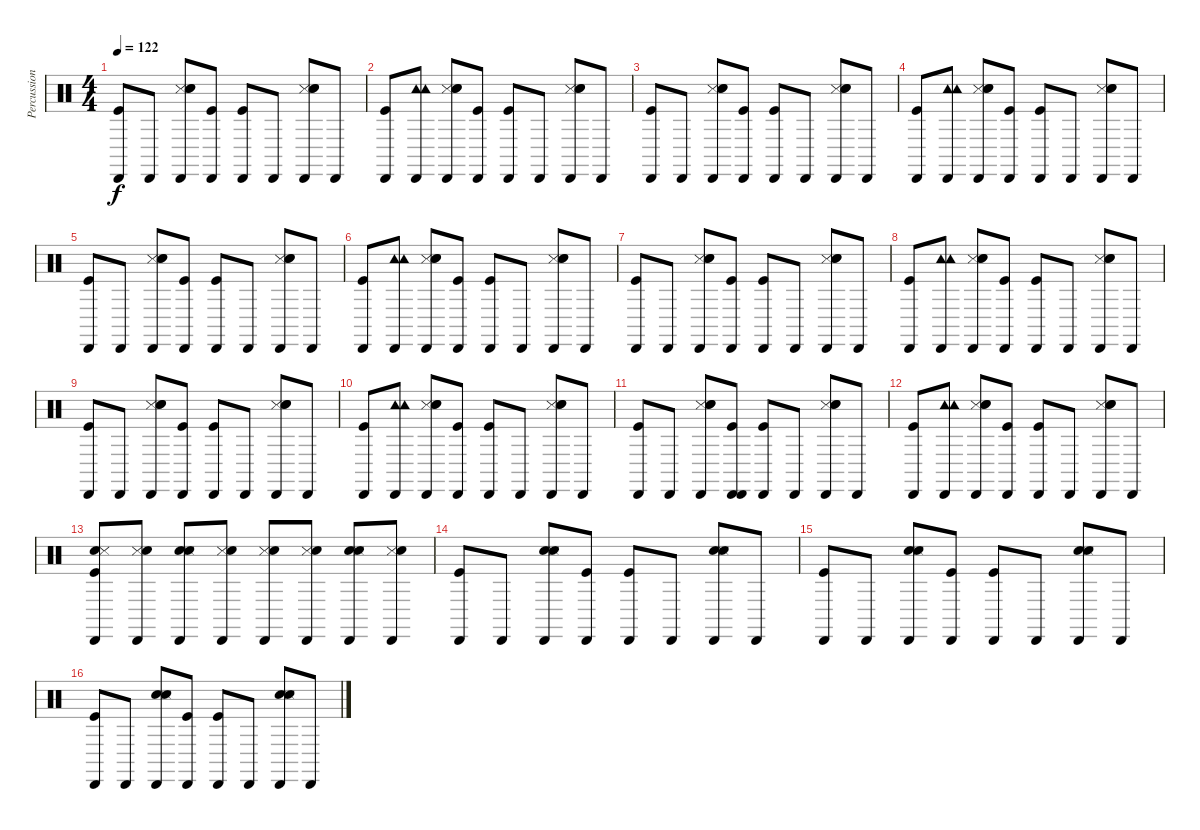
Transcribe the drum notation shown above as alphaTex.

\track ("Percussion" "Percussion") {instrument percussion}
\staff {score}
\articulation defaults
\ts (4 4)
\tempo 122
\clef neutral
\ks c
("Kick (hit)" "Cabasa (hit)").8{dy f} "Cabasa (hit)".8 ("Snare (side stick) 3" "Cabasa (hit)" "Hand Clap (hit)" "Snare (hit) 2").8 ("Kick (hit)" "Cabasa (hit)").8 ("Kick (hit)" "Cabasa (hit)").8 "Cabasa (hit)".8 ("Snare (side stick) 3" "Cabasa (hit)" "Hand Clap (hit)" "Snare (hit) 2").8 "Cabasa (hit)".8 |
("Kick (hit)" "Cabasa (hit)").8 ("Tambourine (hit)" "Cabasa (hit)" "Tambourine (hit)").8 ("Snare (side stick) 3" "Cabasa (hit)" "Hand Clap (hit)" "Snare (hit) 2").8 ("Kick (hit)" "Cabasa (hit)").8 ("Kick (hit)" "Cabasa (hit)").8 "Cabasa (hit)".8 ("Snare (side stick) 3" "Cabasa (hit)" "Hand Clap (hit)" "Snare (hit) 2").8 "Cabasa (hit)".8 |
("Kick (hit)" "Cabasa (hit)").8 "Cabasa (hit)".8 ("Snare (side stick) 3" "Cabasa (hit)" "Hand Clap (hit)" "Snare (hit) 2").8 ("Kick (hit)" "Cabasa (hit)").8 ("Kick (hit)" "Cabasa (hit)").8 "Cabasa (hit)".8 ("Snare (side stick) 3" "Cabasa (hit)" "Hand Clap (hit)" "Snare (hit) 2").8 "Cabasa (hit)".8 |
("Kick (hit)" "Cabasa (hit)").8 ("Tambourine (hit)" "Cabasa (hit)" "Tambourine (hit)").8 ("Snare (side stick) 3" "Cabasa (hit)" "Hand Clap (hit)" "Snare (hit) 2").8 ("Kick (hit)" "Cabasa (hit)").8 ("Kick (hit)" "Cabasa (hit)").8 "Cabasa (hit)".8 ("Snare (side stick) 3" "Cabasa (hit)" "Hand Clap (hit)" "Snare (hit) 2").8 "Cabasa (hit)".8 |
("Kick (hit)" "Cabasa (hit)").8 "Cabasa (hit)".8 ("Snare (side stick) 3" "Cabasa (hit)" "Hand Clap (hit)" "Snare (hit) 2").8 ("Kick (hit)" "Cabasa (hit)").8 ("Kick (hit)" "Cabasa (hit)").8 "Cabasa (hit)".8 ("Snare (side stick) 3" "Cabasa (hit)" "Hand Clap (hit)" "Snare (hit) 2").8 "Cabasa (hit)".8 |
("Kick (hit)" "Cabasa (hit)").8 ("Tambourine (hit)" "Cabasa (hit)" "Tambourine (hit)").8 ("Snare (side stick) 3" "Cabasa (hit)" "Hand Clap (hit)" "Snare (hit) 2").8 ("Kick (hit)" "Cabasa (hit)").8 ("Kick (hit)" "Cabasa (hit)").8 "Cabasa (hit)".8 ("Snare (side stick) 3" "Cabasa (hit)" "Hand Clap (hit)" "Snare (hit) 2").8 "Cabasa (hit)".8 |
("Kick (hit)" "Cabasa (hit)").8 "Cabasa (hit)".8 ("Snare (side stick) 3" "Cabasa (hit)" "Hand Clap (hit)" "Snare (hit) 2").8 ("Kick (hit)" "Cabasa (hit)").8 ("Kick (hit)" "Cabasa (hit)").8 "Cabasa (hit)".8 ("Snare (side stick) 3" "Cabasa (hit)" "Hand Clap (hit)" "Snare (hit) 2").8 "Cabasa (hit)".8 |
("Kick (hit)" "Cabasa (hit)").8 ("Tambourine (hit)" "Cabasa (hit)" "Tambourine (hit)").8 ("Snare (side stick) 3" "Cabasa (hit)" "Hand Clap (hit)" "Snare (hit) 2").8 ("Kick (hit)" "Cabasa (hit)").8 ("Kick (hit)" "Cabasa (hit)").8 "Cabasa (hit)".8 ("Snare (side stick) 3" "Cabasa (hit)" "Hand Clap (hit)" "Snare (hit) 2").8 "Cabasa (hit)".8 |
("Kick (hit)" "Cabasa (hit)").8 "Cabasa (hit)".8 ("Snare (side stick) 3" "Hand Clap (hit)" "Cabasa (hit)" "Snare (hit) 2").8 ("Kick (hit)" "Cabasa (hit)").8 ("Kick (hit)" "Cabasa (hit)").8 "Cabasa (hit)".8 ("Snare (side stick) 3" "Hand Clap (hit)" "Cabasa (hit)" "Snare (hit) 2").8 "Cabasa (hit)".8 |
("Kick (hit)" "Cabasa (hit)").8 ("Tambourine (hit)" "Cabasa (hit)" "Tambourine (hit)").8 ("Snare (side stick) 3" "Hand Clap (hit)" "Cabasa (hit)" "Snare (hit) 2").8 ("Kick (hit)" "Cabasa (hit)").8 ("Kick (hit)" "Cabasa (hit)").8 "Cabasa (hit)".8 ("Snare (side stick) 3" "Hand Clap (hit)" "Cabasa (hit)" "Snare (hit) 2").8 "Cabasa (hit)".8 |
("Kick (hit)" "Cabasa (hit)").8 "Cabasa (hit)".8 ("Snare (side stick) 3" "Hand Clap (hit)" "Cabasa (hit)" "Snare (hit) 2").8 ("Kick (hit)" "Cabasa (hit)" "Cabasa (hit)").8 ("Kick (hit)" "Cabasa (hit)").8 "Cabasa (hit)".8 ("Snare (side stick) 3" "Hand Clap (hit)" "Cabasa (hit)" "Snare (hit) 2").8 "Cabasa (hit)".8 |
("Kick (hit)" "Cabasa (hit)").8 ("Tambourine (hit)" "Cabasa (hit)" "Tambourine (hit)").8 ("Snare (side stick) 3" "Hand Clap (hit)" "Cabasa (hit)" "Snare (hit) 2").8 ("Kick (hit)" "Cabasa (hit)").8 ("Kick (hit)" "Cabasa (hit)").8 "Cabasa (hit)".8 ("Snare (side stick) 3" "Hand Clap (hit)" "Cabasa (hit)" "Snare (hit) 2").8 "Cabasa (hit)".8 |
("Snare (hit) 2" "Snare (side stick) 3" "Kick (hit)" "Cabasa (hit)").8{volume 13} ("Snare (side stick) 3" "Snare (hit) 2" "Cabasa (hit)").8{volume 13} ("Hand Clap (hit)" "Snare (side stick) 3" "Cabasa (hit)" "Snare (hit) 2").8{volume 13} ("Snare (side stick) 3" "Snare (hit) 2" "Cabasa (hit)").8{volume 14} ("Snare (side stick) 3" "Snare (hit) 2" "Cabasa (hit)").8{volume 14} ("Snare (side stick) 3" "Cabasa (hit)" "Snare (hit) 2").8{volume 14} ("Hand Clap (hit)" "Snare (side stick) 3" "Cabasa (hit)" "Snare (hit) 2").8{volume 14} ("Snare (side stick) 3" "Cabasa (hit)" "Snare (hit) 2").8{volume 15} |
("Cabasa (hit)" "Kick (hit)").8{volume 15} "Cabasa (hit)".8 ("Cabasa (hit)" "Hand Clap (hit)" "Snare (side stick) 3" "Snare (hit) 2").8 ("Cabasa (hit)" "Kick (hit)").8 ("Cabasa (hit)" "Kick (hit)").8 "Cabasa (hit)".8 ("Cabasa (hit)" "Hand Clap (hit)" "Snare (side stick) 3" "Snare (hit) 2").8 "Cabasa (hit)".8 |
("Cabasa (hit)" "Kick (hit)").8 "Cabasa (hit)".8 ("Cabasa (hit)" "Hand Clap (hit)" "Snare (side stick) 3" "Snare (hit) 2").8 ("Cabasa (hit)" "Kick (hit)").8 ("Cabasa (hit)" "Kick (hit)").8 "Cabasa (hit)".8 ("Cabasa (hit)" "Hand Clap (hit)" "Snare (side stick) 3" "Snare (hit) 2").8 "Cabasa (hit)".8 |
("Cabasa (hit)" "Kick (hit)").8 "Cabasa (hit)".8 ("Cabasa (hit)" "Hand Clap (hit)" "Snare (side stick) 3" "Snare (hit) 2").8 ("Cabasa (hit)" "Kick (hit)").8 ("Cabasa (hit)" "Kick (hit)").8 "Cabasa (hit)".8 ("Cabasa (hit)" "Hand Clap (hit)" "Snare (side stick) 3" "Snare (hit) 2").8 "Cabasa (hit)".8
